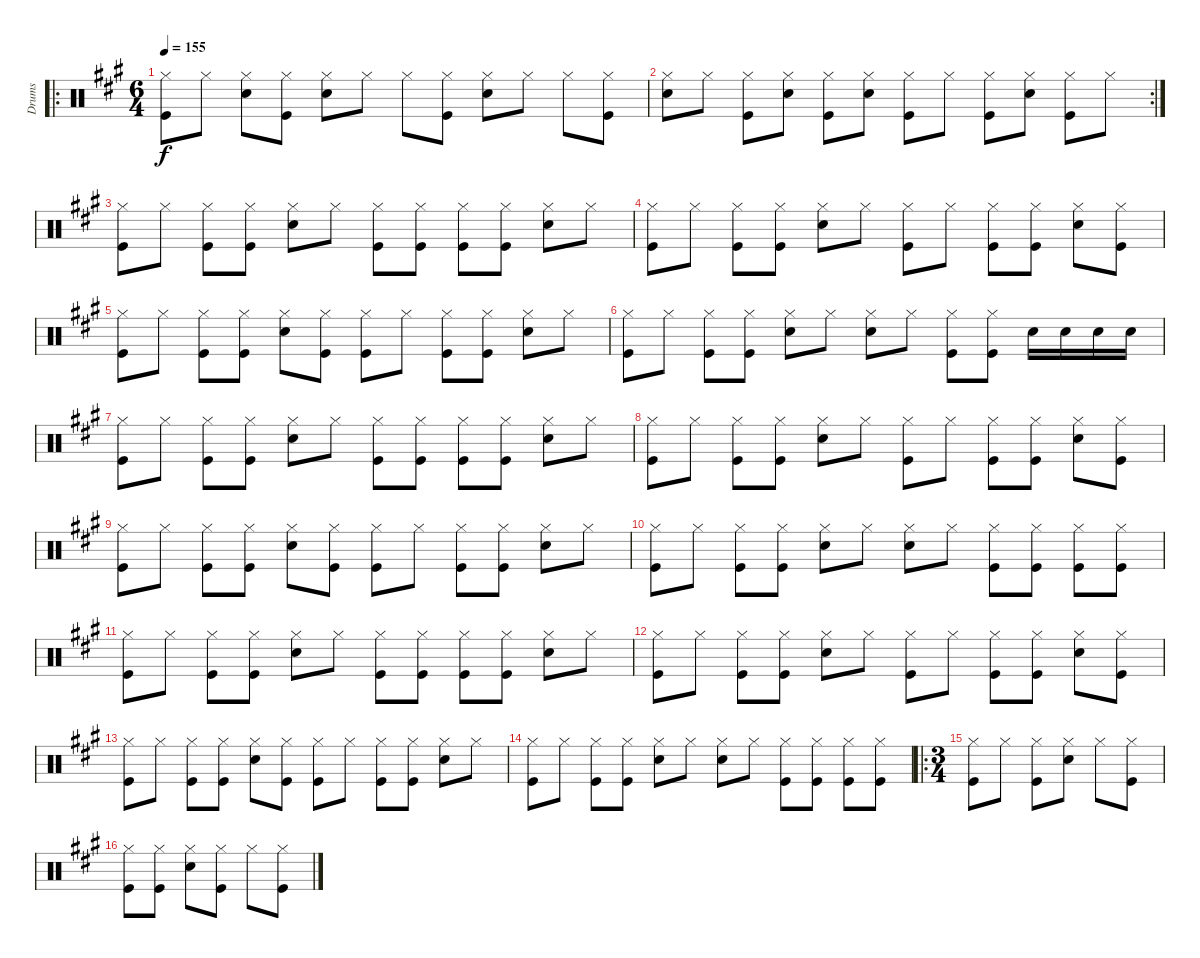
\track ("Drums" "Drums") {instrument percussion}
\staff {score}
\articulation defaults
\ro
\ts (6 4)
\tempo 155
\clef neutral
\ks a
("Hi-Hat (closed)" "Kick (hit)").8{dy f} "Hi-Hat (closed)".8 ("Hi-Hat (closed)" "Snare (hit) 2").8 ("Hi-Hat (closed)" "Kick (hit)").8 ("Hi-Hat (closed)" "Snare (hit) 2").8 "Hi-Hat (closed)".8 "Hi-Hat (closed)".8 ("Hi-Hat (closed)" "Kick (hit)").8 ("Hi-Hat (closed)" "Snare (hit) 2").8 "Hi-Hat (closed)".8 "Hi-Hat (closed)".8 ("Hi-Hat (closed)" "Kick (hit)").8 |
\rc 2
("Hi-Hat (closed)" "Snare (hit) 2").8 "Hi-Hat (closed)".8 ("Hi-Hat (closed)" "Kick (hit)").8 ("Hi-Hat (closed)" "Snare (hit) 2").8 ("Hi-Hat (closed)" "Kick (hit)").8 ("Hi-Hat (closed)" "Snare (hit) 2").8 ("Hi-Hat (closed)" "Kick (hit)").8 "Hi-Hat (closed)".8 ("Hi-Hat (closed)" "Kick (hit)").8 ("Hi-Hat (closed)" "Snare (hit) 2").8 ("Hi-Hat (closed)" "Kick (hit)").8 "Hi-Hat (closed)".8 |
("Hi-Hat (closed)" "Kick (hit)").8 "Hi-Hat (closed)".8 ("Hi-Hat (closed)" "Kick (hit)").8 ("Hi-Hat (closed)" "Kick (hit)").8 ("Hi-Hat (closed)" "Snare (hit) 2").8 "Hi-Hat (closed)".8 ("Hi-Hat (closed)" "Kick (hit)").8 ("Hi-Hat (closed)" "Kick (hit)").8 ("Hi-Hat (closed)" "Kick (hit)").8 ("Hi-Hat (closed)" "Kick (hit)").8 ("Hi-Hat (closed)" "Snare (hit) 2").8 "Hi-Hat (closed)".8 |
("Hi-Hat (closed)" "Kick (hit)").8 "Hi-Hat (closed)".8 ("Hi-Hat (closed)" "Kick (hit)").8 ("Hi-Hat (closed)" "Kick (hit)").8 ("Hi-Hat (closed)" "Snare (hit) 2").8 "Hi-Hat (closed)".8 ("Hi-Hat (closed)" "Kick (hit)").8 "Hi-Hat (closed)".8 ("Hi-Hat (closed)" "Kick (hit)").8 ("Hi-Hat (closed)" "Kick (hit)").8 ("Hi-Hat (closed)" "Snare (hit) 2").8 ("Hi-Hat (closed)" "Kick (hit)").8 |
("Hi-Hat (closed)" "Kick (hit)").8 "Hi-Hat (closed)".8 ("Hi-Hat (closed)" "Kick (hit)").8 ("Hi-Hat (closed)" "Kick (hit)").8 ("Hi-Hat (closed)" "Snare (hit) 2").8 ("Hi-Hat (closed)" "Kick (hit)").8 ("Hi-Hat (closed)" "Kick (hit)").8 "Hi-Hat (closed)".8 ("Hi-Hat (closed)" "Kick (hit)").8 ("Hi-Hat (closed)" "Kick (hit)").8 ("Hi-Hat (closed)" "Snare (hit) 2").8 "Hi-Hat (closed)".8 |
("Hi-Hat (closed)" "Kick (hit)").8 "Hi-Hat (closed)".8 ("Hi-Hat (closed)" "Kick (hit)").8 ("Hi-Hat (closed)" "Kick (hit)").8 ("Hi-Hat (closed)" "Snare (hit) 2").8 "Hi-Hat (closed)".8 ("Hi-Hat (closed)" "Snare (hit) 2").8 "Hi-Hat (closed)".8 ("Hi-Hat (closed)" "Kick (hit)").8 ("Hi-Hat (closed)" "Kick (hit)").8 "Snare (hit) 2".16 "Snare (hit) 2".16 "Snare (hit) 2".16 "Snare (hit) 2".16 |
("Hi-Hat (closed)" "Kick (hit)").8 "Hi-Hat (closed)".8 ("Hi-Hat (closed)" "Kick (hit)").8 ("Hi-Hat (closed)" "Kick (hit)").8 ("Hi-Hat (closed)" "Snare (hit) 2").8 "Hi-Hat (closed)".8 ("Hi-Hat (closed)" "Kick (hit)").8 ("Hi-Hat (closed)" "Kick (hit)").8 ("Hi-Hat (closed)" "Kick (hit)").8 ("Hi-Hat (closed)" "Kick (hit)").8 ("Hi-Hat (closed)" "Snare (hit) 2").8 "Hi-Hat (closed)".8 |
("Hi-Hat (closed)" "Kick (hit)").8 "Hi-Hat (closed)".8 ("Hi-Hat (closed)" "Kick (hit)").8 ("Hi-Hat (closed)" "Kick (hit)").8 ("Hi-Hat (closed)" "Snare (hit) 2").8 "Hi-Hat (closed)".8 ("Hi-Hat (closed)" "Kick (hit)").8 "Hi-Hat (closed)".8 ("Hi-Hat (closed)" "Kick (hit)").8 ("Hi-Hat (closed)" "Kick (hit)").8 ("Hi-Hat (closed)" "Snare (hit) 2").8 ("Hi-Hat (closed)" "Kick (hit)").8 |
("Hi-Hat (closed)" "Kick (hit)").8 "Hi-Hat (closed)".8 ("Hi-Hat (closed)" "Kick (hit)").8 ("Hi-Hat (closed)" "Kick (hit)").8 ("Hi-Hat (closed)" "Snare (hit) 2").8 ("Hi-Hat (closed)" "Kick (hit)").8 ("Hi-Hat (closed)" "Kick (hit)").8 "Hi-Hat (closed)".8 ("Hi-Hat (closed)" "Kick (hit)").8 ("Hi-Hat (closed)" "Kick (hit)").8 ("Hi-Hat (closed)" "Snare (hit) 2").8 "Hi-Hat (closed)".8 |
("Hi-Hat (closed)" "Kick (hit)").8 "Hi-Hat (closed)".8 ("Hi-Hat (closed)" "Kick (hit)").8 ("Hi-Hat (closed)" "Kick (hit)").8 ("Hi-Hat (closed)" "Snare (hit) 2").8 "Hi-Hat (closed)".8 ("Hi-Hat (closed)" "Snare (hit) 2").8 "Hi-Hat (closed)".8 ("Hi-Hat (closed)" "Kick (hit)").8 ("Hi-Hat (closed)" "Kick (hit)").8 ("Hi-Hat (closed)" "Kick (hit)").8 ("Hi-Hat (closed)" "Kick (hit)").8 |
("Hi-Hat (closed)" "Kick (hit)").8 "Hi-Hat (closed)".8 ("Hi-Hat (closed)" "Kick (hit)").8 ("Hi-Hat (closed)" "Kick (hit)").8 ("Hi-Hat (closed)" "Snare (hit) 2").8 "Hi-Hat (closed)".8 ("Hi-Hat (closed)" "Kick (hit)").8 ("Hi-Hat (closed)" "Kick (hit)").8 ("Hi-Hat (closed)" "Kick (hit)").8 ("Hi-Hat (closed)" "Kick (hit)").8 ("Hi-Hat (closed)" "Snare (hit) 2").8 "Hi-Hat (closed)".8 |
("Hi-Hat (closed)" "Kick (hit)").8 "Hi-Hat (closed)".8 ("Hi-Hat (closed)" "Kick (hit)").8 ("Hi-Hat (closed)" "Kick (hit)").8 ("Hi-Hat (closed)" "Snare (hit) 2").8 "Hi-Hat (closed)".8 ("Hi-Hat (closed)" "Kick (hit)").8 "Hi-Hat (closed)".8 ("Hi-Hat (closed)" "Kick (hit)").8 ("Hi-Hat (closed)" "Kick (hit)").8 ("Hi-Hat (closed)" "Snare (hit) 2").8 ("Hi-Hat (closed)" "Kick (hit)").8 |
("Hi-Hat (closed)" "Kick (hit)").8 "Hi-Hat (closed)".8 ("Hi-Hat (closed)" "Kick (hit)").8 ("Hi-Hat (closed)" "Kick (hit)").8 ("Hi-Hat (closed)" "Snare (hit) 2").8 ("Hi-Hat (closed)" "Kick (hit)").8 ("Hi-Hat (closed)" "Kick (hit)").8 "Hi-Hat (closed)".8 ("Hi-Hat (closed)" "Kick (hit)").8 ("Hi-Hat (closed)" "Kick (hit)").8 ("Hi-Hat (closed)" "Snare (hit) 2").8 "Hi-Hat (closed)".8 |
("Hi-Hat (closed)" "Kick (hit)").8 "Hi-Hat (closed)".8 ("Hi-Hat (closed)" "Kick (hit)").8 ("Hi-Hat (closed)" "Kick (hit)").8 ("Hi-Hat (closed)" "Snare (hit) 2").8 "Hi-Hat (closed)".8 ("Hi-Hat (closed)" "Snare (hit) 2").8 "Hi-Hat (closed)".8 ("Hi-Hat (closed)" "Kick (hit)").8 ("Hi-Hat (closed)" "Kick (hit)").8 ("Hi-Hat (closed)" "Kick (hit)").8 ("Hi-Hat (closed)" "Kick (hit)").8 |
\ro
\ts (3 4)
("Hi-Hat (closed)" "Kick (hit)").8 "Hi-Hat (closed)".8 ("Hi-Hat (closed)" "Kick (hit)").8 ("Hi-Hat (closed)" "Snare (hit) 2").8 "Hi-Hat (closed)".8 ("Hi-Hat (closed)" "Kick (hit)").8 |
("Hi-Hat (closed)" "Kick (hit)").8 ("Hi-Hat (closed)" "Kick (hit)").8 ("Hi-Hat (closed)" "Snare (hit) 2").8 ("Hi-Hat (closed)" "Kick (hit)").8 "Hi-Hat (closed)".8 ("Hi-Hat (closed)" "Kick (hit)").8
